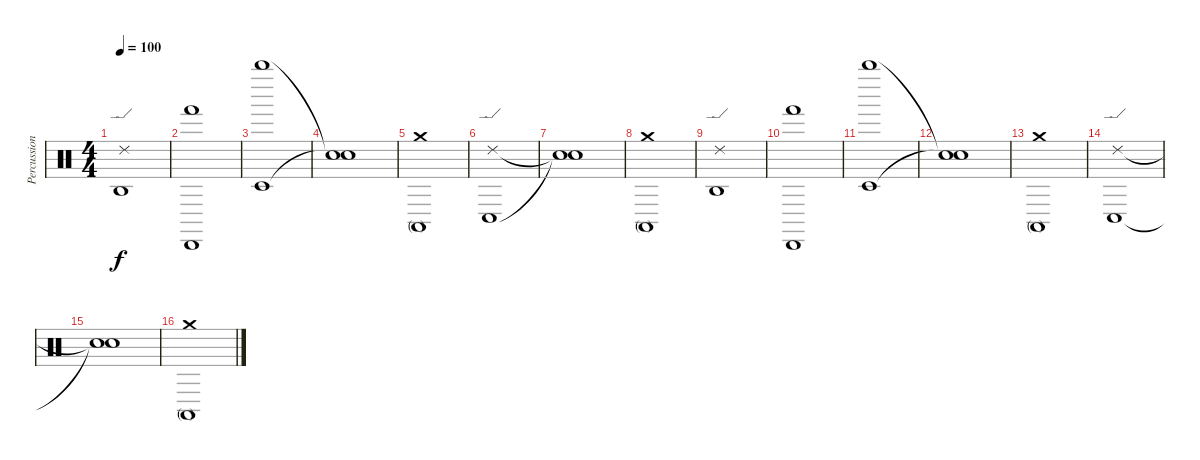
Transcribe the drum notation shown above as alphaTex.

\track ("Percussion Organ" "Percussion") {instrument percussion}
\staff {score}
\articulation defaults
\ts (4 4)
\tempo 100
\clef neutral
\ks c
("Ride (edge) 2" "Agogo high (hit)").1{dy f} |
("Hand (hit)" "Cabasa (hit)").1 |
("Timbale low (hit)" "Whistle high (hit)").1 |
("Snare (hit)"{t} "Snare (hit)"{t}).1 |
("Crash medium (hit)" "Conga high (mute)").1 |
("Ride (edge) 2" "Conga low (hit)").1 |
("Snare (hit)"{t} "Snare (hit)"{t}).1 |
("Crash medium (hit)" "Conga high (mute)").1 |
("Ride (edge) 2" "Agogo high (hit)").1 |
("Hand (hit)" "Cabasa (hit)").1 |
("Timbale low (hit)" "Whistle high (hit)").1 |
("Snare (hit)"{t} "Snare (hit)"{t}).1 |
("Crash medium (hit)" "Conga high (mute)").1 |
("Ride (edge) 2" "Conga low (hit)").1 |
("Snare (hit)"{t} "Snare (hit)"{t}).1 |
("Crash medium (hit)" "Conga high (mute)").1
